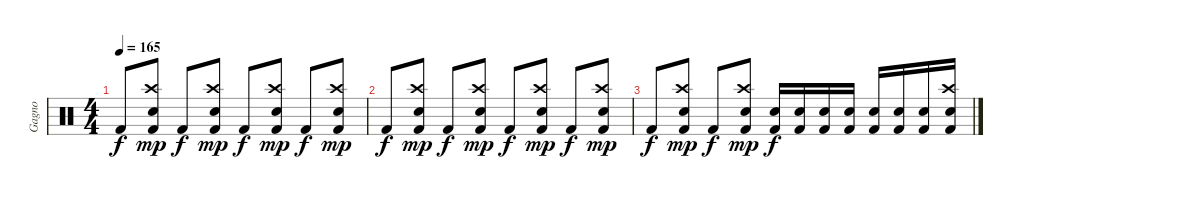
\track ("Gagno" "Gagno") {instrument percussion}
\staff {score}
\articulation defaults
\ts (4 4)
\tempo 165
\clef neutral
\ks c "Kick (hit) 2".8{dy f}
("Crash high (hit)" "Electric Snare (hit)" "Kick (hit) 2").8{dy mp} "Kick (hit) 2".8{dy f} ("Crash high (hit)" "Electric Snare (hit)" "Kick (hit) 2").8{dy mp} "Kick (hit) 2".8{dy f} ("Crash high (hit)" "Electric Snare (hit)" "Kick (hit) 2").8{dy mp} "Kick (hit) 2".8{dy f} ("Crash high (hit)" "Electric Snare (hit)" "Kick (hit) 2").8{dy mp} |
"Kick (hit) 2".8{dy f} ("Crash high (hit)" "Electric Snare (hit)" "Kick (hit) 2").8{dy mp} "Kick (hit) 2".8{dy f} ("Crash high (hit)" "Electric Snare (hit)" "Kick (hit) 2").8{dy mp} "Kick (hit) 2".8{dy f} ("Crash high (hit)" "Electric Snare (hit)" "Kick (hit) 2").8{dy mp} "Kick (hit) 2".8{dy f} ("Crash high (hit)" "Electric Snare (hit)" "Kick (hit) 2").8{dy mp} |
"Kick (hit) 2".8{dy f} ("Crash high (hit)" "Electric Snare (hit)" "Kick (hit) 2").8{dy mp} "Kick (hit) 2".8{dy f} ("Crash high (hit)" "Electric Snare (hit)" "Kick (hit) 2").8{dy mp} ("Electric Snare (hit)" "Kick (hit) 2").16{dy f} ("Electric Snare (hit)" "Kick (hit) 2").16 ("Electric Snare (hit)" "Kick (hit) 2").16 ("Electric Snare (hit)" "Kick (hit) 2").16 ("Electric Snare (hit)" "Kick (hit) 2").16 ("Electric Snare (hit)" "Kick (hit) 2").16 ("Electric Snare (hit)" "Kick (hit) 2").16 ("Crash high (hit)" "Electric Snare (hit)" "Kick (hit) 2").16
